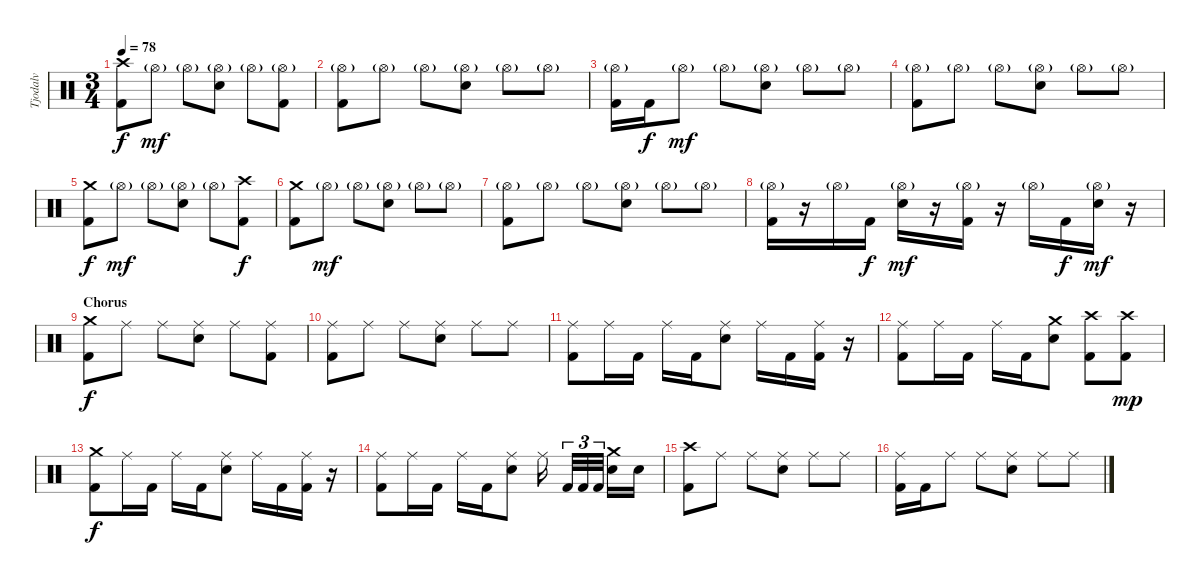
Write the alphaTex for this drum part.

\track ("Tjodalv" "Tjodalv") {instrument percussion}
\staff {score}
\articulation defaults
\ts (3 4)
\tempo 78
\clef neutral
\ks c
("Crash high (hit)" "Kick (hit) 2").8{dy f} "Hi-Hat (open)"{g}.8{dy mf} "Hi-Hat (open)"{g}.8 ("Hi-Hat (open)"{g} "Electric Snare (hit)").8 "Hi-Hat (open)"{g}.8 ("Hi-Hat (open)"{g} "Kick (hit) 2").8 |
("Hi-Hat (open)"{g} "Kick (hit) 2").8 "Hi-Hat (open)"{g}.8 "Hi-Hat (open)"{g}.8 ("Hi-Hat (open)"{g} "Electric Snare (hit)").8 "Hi-Hat (open)"{g}.8 "Hi-Hat (open)"{g}.8 |
("Hi-Hat (open)"{g} "Kick (hit) 2").16 "Kick (hit) 2".16{dy f} "Hi-Hat (open)"{g}.8{dy mf} "Hi-Hat (open)"{g}.8 ("Hi-Hat (open)"{g} "Electric Snare (hit)").8 "Hi-Hat (open)"{g}.8 "Hi-Hat (open)"{g}.8 |
("Hi-Hat (open)"{g} "Kick (hit) 2").8 "Hi-Hat (open)"{g}.8 "Hi-Hat (open)"{g}.8 ("Hi-Hat (open)"{g} "Electric Snare (hit)").8 "Hi-Hat (open)"{g}.8 "Hi-Hat (open)"{g}.8 |
("Crash medium (hit)" "Kick (hit) 2").8{dy f} "Hi-Hat (open)"{g}.8{dy mf} "Hi-Hat (open)"{g}.8 ("Hi-Hat (open)"{g} "Electric Snare (hit)").8 "Hi-Hat (open)"{g}.8 ("Crash high (hit)" "Kick (hit) 2").8{dy f} |
("Crash medium (hit)" "Kick (hit) 2").8 "Hi-Hat (open)"{g}.8{dy mf} "Hi-Hat (open)"{g}.8 ("Hi-Hat (open)"{g} "Electric Snare (hit)").8 "Hi-Hat (open)"{g}.8 "Hi-Hat (open)"{g}.8 |
("Hi-Hat (open)"{g} "Kick (hit) 2").8 "Hi-Hat (open)"{g}.8 "Hi-Hat (open)"{g}.8 ("Hi-Hat (open)"{g} "Electric Snare (hit)").8 "Hi-Hat (open)"{g}.8 "Hi-Hat (open)"{g}.8 |
("Hi-Hat (open)"{g} "Kick (hit) 2").16 r.16 "Hi-Hat (open)"{g}.16 "Kick (hit) 2".16{dy f} ("Hi-Hat (open)"{g} "Electric Snare (hit)").16{dy mf} r.16 ("Hi-Hat (open)"{g} "Kick (hit) 2").16 r.16 "Hi-Hat (open)"{g}.16 "Kick (hit) 2".16{dy f} ("Hi-Hat (open)"{g} "Electric Snare (hit)").16{dy mf} r.16 |
\section ("" "Chorus")
("Crash medium (hit)" "Kick (hit) 2").8{dy f} "Ride (middle)".8 "Ride (middle)".8 ("Ride (middle)" "Electric Snare (hit)").8 "Ride (middle)".8 ("Ride (middle)" "Kick (hit) 2").8 |
("Ride (middle)" "Kick (hit) 2").8 "Ride (middle)".8 "Ride (middle)".8 ("Ride (middle)" "Electric Snare (hit)").8 "Ride (middle)".8 "Ride (middle)".8 |
("Ride (middle)" "Kick (hit) 2").8 "Ride (middle)".16 "Kick (hit) 2".16 "Ride (middle)".16 "Kick (hit) 2".16 ("Ride (middle)" "Electric Snare (hit)").8 "Ride (middle)".16 "Kick (hit) 2".16 ("Ride (middle)" "Kick (hit) 2").16 r.16 |
("Ride (middle)" "Kick (hit) 2").8 "Ride (middle)".16 "Kick (hit) 2".16 "Ride (middle)".16 "Kick (hit) 2".16 ("Crash medium (hit)" "Electric Snare (hit)").8 ("Crash high (hit)" "Kick (hit) 2").8 ("Crash high (hit)" "Kick (hit) 2").8{dy mp} |
("Crash medium (hit)" "Kick (hit) 2").8{dy f} "Ride (middle)".16 "Kick (hit) 2".16 "Ride (middle)".16 "Kick (hit) 2".16 ("Ride (middle)" "Electric Snare (hit)").8 "Ride (middle)".16 "Kick (hit) 2".16 ("Ride (middle)" "Kick (hit) 2").16 r.16 |
("Ride (middle)" "Kick (hit) 2").8 "Ride (middle)".16 "Kick (hit) 2".16 "Ride (middle)".16 "Kick (hit) 2".16 ("Ride (middle)" "Electric Snare (hit)").8 "Ride (middle)".16{beam splitsecondary} "Kick (hit) 2".32{tu (3 2)} "Kick (hit) 2".32{tu (3 2)} "Kick (hit) 2".32{tu (3 2) beam splitsecondary} ("Crash medium (hit)" "Electric Snare (hit)").16 "Electric Snare (hit)".16 |
("Crash high (hit)" "Kick (hit) 2").8 "Ride (middle)".8 "Ride (middle)".8 ("Ride (middle)" "Electric Snare (hit)").8 "Ride (middle)".8 "Ride (middle)".8 |
("Ride (middle)" "Kick (hit) 2").16 "Kick (hit) 2".16 "Ride (middle)".8 "Ride (middle)".8 ("Ride (middle)" "Electric Snare (hit)").8 "Ride (middle)".8 "Ride (middle)".8
